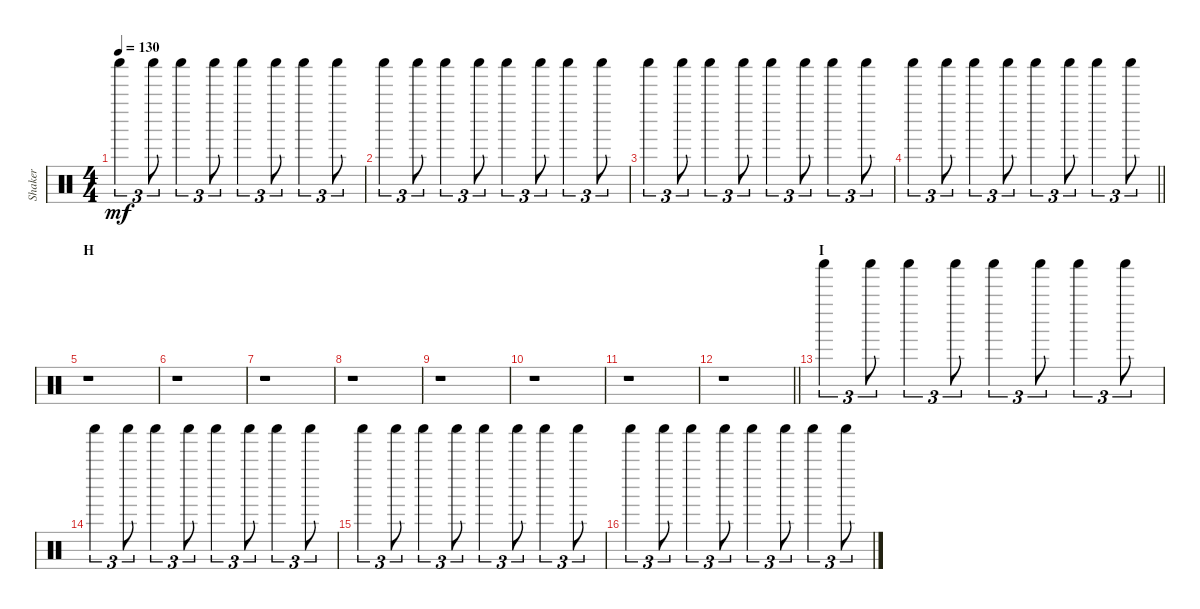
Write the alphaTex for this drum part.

\track ("Shaker" "Shaker") {instrument percussion}
\staff {score}
\articulation defaults
\ts (4 4)
\tempo 130
\clef neutral
\ks c "Shaker (hit)".4{tu (3 2) dy mf} "Shaker (hit)".8{tu (3 2)} "Shaker (hit)".4{tu (3 2)} "Shaker (hit)".8{tu (3 2)} "Shaker (hit)".4{tu (3 2)} "Shaker (hit)".8{tu (3 2)} "Shaker (hit)".4{tu (3 2)} "Shaker (hit)".8{tu (3 2)}
|
"Shaker (hit)".4{tu (3 2)} "Shaker (hit)".8{tu (3 2)} "Shaker (hit)".4{tu (3 2)} "Shaker (hit)".8{tu (3 2)} "Shaker (hit)".4{tu (3 2)} "Shaker (hit)".8{tu (3 2)} "Shaker (hit)".4{tu (3 2)} "Shaker (hit)".8{tu (3 2)} |
"Shaker (hit)".4{tu (3 2)} "Shaker (hit)".8{tu (3 2)} "Shaker (hit)".4{tu (3 2)} "Shaker (hit)".8{tu (3 2)} "Shaker (hit)".4{tu (3 2)} "Shaker (hit)".8{tu (3 2)} "Shaker (hit)".4{tu (3 2)} "Shaker (hit)".8{tu (3 2)} |
\barLineRight lightlight "Shaker (hit)".4{tu (3 2)} "Shaker (hit)".8{tu (3 2)} "Shaker (hit)".4{tu (3 2)} "Shaker (hit)".8{tu (3 2)} "Shaker (hit)".4{tu (3 2)} "Shaker (hit)".8{tu (3 2)} "Shaker (hit)".4{tu (3 2)} "Shaker (hit)".8{tu (3 2)}
|
\section ("" "H")
r.1 |
r.1 |
r.1 |
r.1 |
r.1 |
r.1 |
r.1 |
\barLineRight lightlight
r.1 |
\section ("" "I")
"Shaker (hit)".4{tu (3 2)} "Shaker (hit)".8{tu (3 2)} "Shaker (hit)".4{tu (3 2)} "Shaker (hit)".8{tu (3 2)} "Shaker (hit)".4{tu (3 2)} "Shaker (hit)".8{tu (3 2)} "Shaker (hit)".4{tu (3 2)} "Shaker (hit)".8{tu (3 2)} |
"Shaker (hit)".4{tu (3 2)} "Shaker (hit)".8{tu (3 2)} "Shaker (hit)".4{tu (3 2)} "Shaker (hit)".8{tu (3 2)} "Shaker (hit)".4{tu (3 2)} "Shaker (hit)".8{tu (3 2)} "Shaker (hit)".4{tu (3 2)} "Shaker (hit)".8{tu (3 2)} |
"Shaker (hit)".4{tu (3 2)} "Shaker (hit)".8{tu (3 2)} "Shaker (hit)".4{tu (3 2)} "Shaker (hit)".8{tu (3 2)} "Shaker (hit)".4{tu (3 2)} "Shaker (hit)".8{tu (3 2)} "Shaker (hit)".4{tu (3 2)} "Shaker (hit)".8{tu (3 2)} |
"Shaker (hit)".4{tu (3 2)} "Shaker (hit)".8{tu (3 2)} "Shaker (hit)".4{tu (3 2)} "Shaker (hit)".8{tu (3 2)} "Shaker (hit)".4{tu (3 2)} "Shaker (hit)".8{tu (3 2)} "Shaker (hit)".4{tu (3 2)} "Shaker (hit)".8{tu (3 2)}
